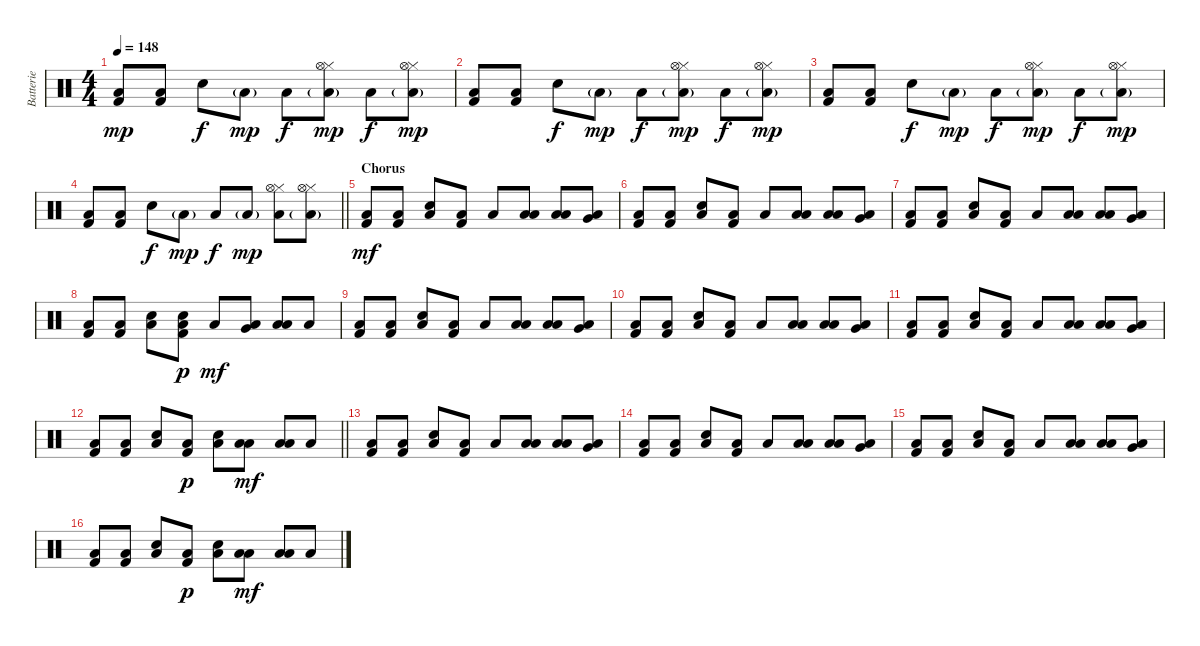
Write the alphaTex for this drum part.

\track ("Batterie" "Batterie") {instrument percussion}
\staff {score}
\articulation defaults
\ts (4 4)
\tempo 148
\clef neutral
\ks c
("Low Floor Tom (hit)" "Kick (hit) 2").8{dy mp} ("Low Floor Tom (hit)" "Kick (hit) 2").8 "Snare (hit) 2".8{dy f} "Low Floor Tom (hit)"{g}.8{dy mp} "Low Floor Tom (hit)".8{dy f} ("Hi-Hat (closed)" "Hi-Hat (open)" "Low Floor Tom (hit)"{g}).8{dy mp} "Low Floor Tom (hit)".8{dy f} ("Hi-Hat (closed)" "Hi-Hat (open)" "Low Floor Tom (hit)"{g}).8{dy mp} |
("Low Floor Tom (hit)" "Kick (hit) 2").8 ("Low Floor Tom (hit)" "Kick (hit) 2").8 "Snare (hit) 2".8{dy f} "Low Floor Tom (hit)"{g}.8{dy mp} "Low Floor Tom (hit)".8{dy f} ("Hi-Hat (closed)" "Hi-Hat (open)" "Low Floor Tom (hit)"{g}).8{dy mp} "Low Floor Tom (hit)".8{dy f} ("Hi-Hat (closed)" "Hi-Hat (open)" "Low Floor Tom (hit)"{g}).8{dy mp} |
("Low Floor Tom (hit)" "Kick (hit) 2").8 ("Low Floor Tom (hit)" "Kick (hit) 2").8 "Snare (hit) 2".8{dy f} "Low Floor Tom (hit)"{g}.8{dy mp} "Low Floor Tom (hit)".8{dy f} ("Hi-Hat (closed)" "Hi-Hat (open)" "Low Floor Tom (hit)"{g}).8{dy mp} "Low Floor Tom (hit)".8{dy f} ("Hi-Hat (closed)" "Hi-Hat (open)" "Low Floor Tom (hit)"{g}).8{dy mp} |
\barLineRight lightlight
("Low Floor Tom (hit)" "Kick (hit) 2").8 ("Low Floor Tom (hit)" "Kick (hit) 2").8 "Snare (hit) 2".8{dy f} "Low Floor Tom (hit)"{g}.8{dy mp} "Low Floor Tom (hit)".8{dy f} "Low Floor Tom (hit)"{g}.8{dy mp} ("Hi-Hat (closed)" "Hi-Hat (open)" "Low Floor Tom (hit)").8 ("Hi-Hat (closed)" "Hi-Hat (open)" "Low Floor Tom (hit)"{g}).8 |
\section ("" "Chorus")
("Low Floor Tom (hit)" "Kick (hit) 2").8{dy mf} ("Low Floor Tom (hit)" "Kick (hit) 2").8 ("Low Floor Tom (hit)" "Snare (hit) 2").8 ("Low Floor Tom (hit)" "Kick (hit) 2").8 "Low Floor Tom (hit)".8 ("Low Floor Tom (hit)" "Low Tom (hit)").8 ("Low Floor Tom (hit)" "Low Floor Tom (hit)").8 ("Low Floor Tom (hit)" "Very Low Tom (hit)").8 |
("Low Floor Tom (hit)" "Kick (hit) 2").8 ("Low Floor Tom (hit)" "Kick (hit) 2").8 ("Low Floor Tom (hit)" "Snare (hit) 2").8 ("Low Floor Tom (hit)" "Kick (hit) 2").8 "Low Floor Tom (hit)".8 ("Low Floor Tom (hit)" "Low Tom (hit)").8 ("Low Floor Tom (hit)" "Low Floor Tom (hit)").8 ("Low Floor Tom (hit)" "Very Low Tom (hit)").8 |
("Low Floor Tom (hit)" "Kick (hit) 2").8 ("Low Floor Tom (hit)" "Kick (hit) 2").8 ("Low Floor Tom (hit)" "Snare (hit) 2").8 ("Low Floor Tom (hit)" "Kick (hit) 2").8 "Low Floor Tom (hit)".8 ("Low Floor Tom (hit)" "Low Tom (hit)").8 ("Low Floor Tom (hit)" "Low Floor Tom (hit)").8 ("Low Floor Tom (hit)" "Very Low Tom (hit)").8 |
("Low Floor Tom (hit)" "Kick (hit) 2").8 ("Low Floor Tom (hit)" "Kick (hit) 2").8 ("Low Floor Tom (hit)" "Snare (hit) 2").8 ("Low Floor Tom (hit)" "Snare (hit) 2" "Kick (hit) 2").8{dy p} "Low Floor Tom (hit)".8{dy mf} ("Low Floor Tom (hit)" "Very Low Tom (hit)").8 ("Low Floor Tom (hit)" "Low Floor Tom (hit)").8 "Low Floor Tom (hit)".8 |
("Low Floor Tom (hit)" "Kick (hit) 2").8 ("Low Floor Tom (hit)" "Kick (hit) 2").8 ("Low Floor Tom (hit)" "Snare (hit) 2").8 ("Low Floor Tom (hit)" "Kick (hit) 2").8 "Low Floor Tom (hit)".8 ("Low Floor Tom (hit)" "Low Tom (hit)").8 ("Low Floor Tom (hit)" "Low Floor Tom (hit)").8 ("Low Floor Tom (hit)" "Very Low Tom (hit)").8 |
("Low Floor Tom (hit)" "Kick (hit) 2").8 ("Low Floor Tom (hit)" "Kick (hit) 2").8 ("Low Floor Tom (hit)" "Snare (hit) 2").8 ("Low Floor Tom (hit)" "Kick (hit) 2").8 "Low Floor Tom (hit)".8 ("Low Floor Tom (hit)" "Low Tom (hit)").8 ("Low Floor Tom (hit)" "Low Floor Tom (hit)").8 ("Low Floor Tom (hit)" "Very Low Tom (hit)").8 |
("Low Floor Tom (hit)" "Kick (hit) 2").8 ("Low Floor Tom (hit)" "Kick (hit) 2").8 ("Low Floor Tom (hit)" "Snare (hit) 2").8 ("Low Floor Tom (hit)" "Kick (hit) 2").8 "Low Floor Tom (hit)".8 ("Low Floor Tom (hit)" "Low Tom (hit)").8 ("Low Floor Tom (hit)" "Low Floor Tom (hit)").8 ("Low Floor Tom (hit)" "Very Low Tom (hit)").8 |
\barLineRight lightlight
("Low Floor Tom (hit)" "Kick (hit) 2").8 ("Low Floor Tom (hit)" "Kick (hit) 2").8 ("Low Floor Tom (hit)" "Snare (hit) 2").8 ("Low Floor Tom (hit)" "Kick (hit) 2").8{dy p} ("Low Floor Tom (hit)" "Snare (hit) 2").8 ("Low Floor Tom (hit)" "Low Floor Tom (hit)").8{dy mf} ("Low Floor Tom (hit)" "Low Floor Tom (hit)").8 "Low Floor Tom (hit)".8 |
("Low Floor Tom (hit)" "Kick (hit) 2").8 ("Low Floor Tom (hit)" "Kick (hit) 2").8 ("Low Floor Tom (hit)" "Snare (hit) 2").8 ("Low Floor Tom (hit)" "Kick (hit) 2").8 "Low Floor Tom (hit)".8 ("Low Floor Tom (hit)" "Low Tom (hit)").8 ("Low Floor Tom (hit)" "Low Floor Tom (hit)").8 ("Low Floor Tom (hit)" "Very Low Tom (hit)").8 |
("Low Floor Tom (hit)" "Kick (hit) 2").8 ("Low Floor Tom (hit)" "Kick (hit) 2").8 ("Low Floor Tom (hit)" "Snare (hit) 2").8 ("Low Floor Tom (hit)" "Kick (hit) 2").8 "Low Floor Tom (hit)".8 ("Low Floor Tom (hit)" "Low Tom (hit)").8 ("Low Floor Tom (hit)" "Low Floor Tom (hit)").8 ("Low Floor Tom (hit)" "Very Low Tom (hit)").8 |
("Low Floor Tom (hit)" "Kick (hit) 2").8 ("Low Floor Tom (hit)" "Kick (hit) 2").8 ("Low Floor Tom (hit)" "Snare (hit) 2").8 ("Low Floor Tom (hit)" "Kick (hit) 2").8 "Low Floor Tom (hit)".8 ("Low Floor Tom (hit)" "Low Tom (hit)").8 ("Low Floor Tom (hit)" "Low Floor Tom (hit)").8 ("Low Floor Tom (hit)" "Very Low Tom (hit)").8 |
("Low Floor Tom (hit)" "Kick (hit) 2").8 ("Low Floor Tom (hit)" "Kick (hit) 2").8 ("Low Floor Tom (hit)" "Snare (hit) 2").8 ("Low Floor Tom (hit)" "Kick (hit) 2").8{dy p} ("Low Floor Tom (hit)" "Snare (hit) 2").8 ("Low Floor Tom (hit)" "Low Floor Tom (hit)").8{dy mf} ("Low Floor Tom (hit)" "Low Floor Tom (hit)").8 "Low Floor Tom (hit)".8
